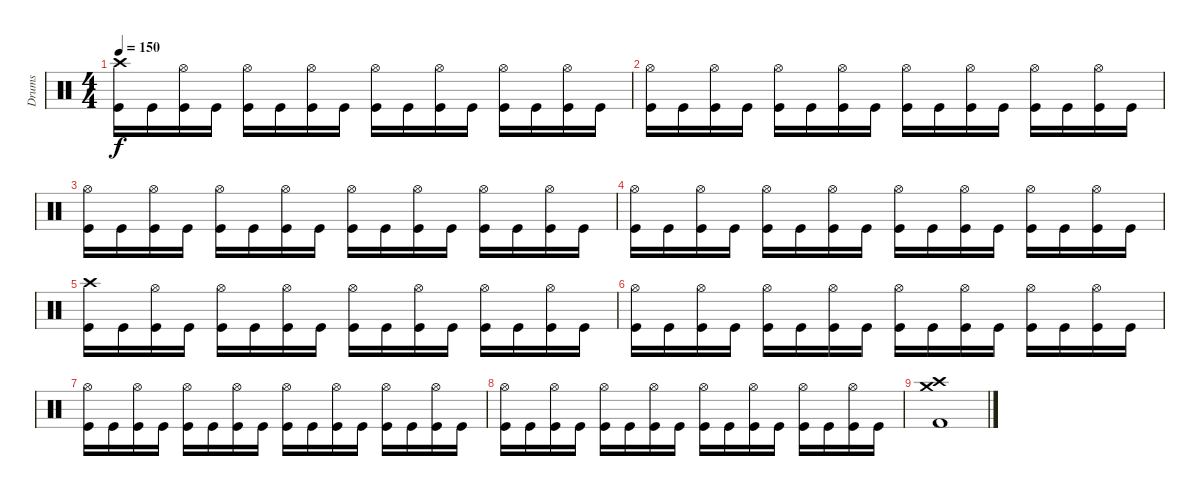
\track ("Drums" "Drums") {instrument percussion}
\staff {score}
\articulation defaults
\ts (4 4)
\tempo 150
\clef neutral
\ks c
("Crash high (hit)" "Kick (hit)").16{dy f} "Kick (hit)".16 ("Hi-Hat (open)" "Kick (hit)").16 "Kick (hit)".16 ("Hi-Hat (open)" "Kick (hit)").16 "Kick (hit)".16 ("Hi-Hat (open)" "Kick (hit)").16 "Kick (hit)".16 ("Hi-Hat (open)" "Kick (hit)").16 "Kick (hit)".16 ("Hi-Hat (open)" "Kick (hit)").16 "Kick (hit)".16 ("Hi-Hat (open)" "Kick (hit)").16 "Kick (hit)".16 ("Hi-Hat (open)" "Kick (hit)").16 "Kick (hit)".16 |
("Hi-Hat (open)" "Kick (hit)").16 "Kick (hit)".16 ("Hi-Hat (open)" "Kick (hit)").16 "Kick (hit)".16 ("Hi-Hat (open)" "Kick (hit)").16 "Kick (hit)".16 ("Hi-Hat (open)" "Kick (hit)").16 "Kick (hit)".16 ("Hi-Hat (open)" "Kick (hit)").16 "Kick (hit)".16 ("Hi-Hat (open)" "Kick (hit)").16 "Kick (hit)".16 ("Hi-Hat (open)" "Kick (hit)").16 "Kick (hit)".16 ("Hi-Hat (open)" "Kick (hit)").16 "Kick (hit)".16 |
("Hi-Hat (open)" "Kick (hit)").16 "Kick (hit)".16 ("Hi-Hat (open)" "Kick (hit)").16 "Kick (hit)".16 ("Hi-Hat (open)" "Kick (hit)").16 "Kick (hit)".16 ("Hi-Hat (open)" "Kick (hit)").16 "Kick (hit)".16 ("Hi-Hat (open)" "Kick (hit)").16 "Kick (hit)".16 ("Hi-Hat (open)" "Kick (hit)").16 "Kick (hit)".16 ("Hi-Hat (open)" "Kick (hit)").16 "Kick (hit)".16 ("Hi-Hat (open)" "Kick (hit)").16 "Kick (hit)".16 |
("Hi-Hat (open)" "Kick (hit)").16 "Kick (hit)".16 ("Hi-Hat (open)" "Kick (hit)").16 "Kick (hit)".16 ("Hi-Hat (open)" "Kick (hit)").16 "Kick (hit)".16 ("Hi-Hat (open)" "Kick (hit)").16 "Kick (hit)".16 ("Hi-Hat (open)" "Kick (hit)").16 "Kick (hit)".16 ("Hi-Hat (open)" "Kick (hit)").16 "Kick (hit)".16 ("Hi-Hat (open)" "Kick (hit)").16 "Kick (hit)".16 ("Hi-Hat (open)" "Kick (hit)").16 "Kick (hit)".16 |
("Crash high (hit)" "Kick (hit)").16 "Kick (hit)".16 ("Hi-Hat (open)" "Kick (hit)").16 "Kick (hit)".16 ("Hi-Hat (open)" "Kick (hit)").16 "Kick (hit)".16 ("Hi-Hat (open)" "Kick (hit)").16 "Kick (hit)".16 ("Hi-Hat (open)" "Kick (hit)").16 "Kick (hit)".16 ("Hi-Hat (open)" "Kick (hit)").16 "Kick (hit)".16 ("Hi-Hat (open)" "Kick (hit)").16 "Kick (hit)".16 ("Hi-Hat (open)" "Kick (hit)").16 "Kick (hit)".16 |
("Hi-Hat (open)" "Kick (hit)").16 "Kick (hit)".16 ("Hi-Hat (open)" "Kick (hit)").16 "Kick (hit)".16 ("Hi-Hat (open)" "Kick (hit)").16 "Kick (hit)".16 ("Hi-Hat (open)" "Kick (hit)").16 "Kick (hit)".16 ("Hi-Hat (open)" "Kick (hit)").16 "Kick (hit)".16 ("Hi-Hat (open)" "Kick (hit)").16 "Kick (hit)".16 ("Hi-Hat (open)" "Kick (hit)").16 "Kick (hit)".16 ("Hi-Hat (open)" "Kick (hit)").16 "Kick (hit)".16 |
("Hi-Hat (open)" "Kick (hit)").16 "Kick (hit)".16 ("Hi-Hat (open)" "Kick (hit)").16 "Kick (hit)".16 ("Hi-Hat (open)" "Kick (hit)").16 "Kick (hit)".16 ("Hi-Hat (open)" "Kick (hit)").16 "Kick (hit)".16 ("Hi-Hat (open)" "Kick (hit)").16 "Kick (hit)".16 ("Hi-Hat (open)" "Kick (hit)").16 "Kick (hit)".16 ("Hi-Hat (open)" "Kick (hit)").16 "Kick (hit)".16 ("Hi-Hat (open)" "Kick (hit)").16 "Kick (hit)".16 |
("Hi-Hat (open)" "Kick (hit)").16 "Kick (hit)".16 ("Hi-Hat (open)" "Kick (hit)").16 "Kick (hit)".16 ("Hi-Hat (open)" "Kick (hit)").16 "Kick (hit)".16 ("Hi-Hat (open)" "Kick (hit)").16 "Kick (hit)".16 ("Hi-Hat (open)" "Kick (hit)").16 "Kick (hit)".16 ("Hi-Hat (open)" "Kick (hit)").16 "Kick (hit)".16 ("Hi-Hat (open)" "Kick (hit)").16 "Kick (hit)".16 ("Hi-Hat (open)" "Kick (hit)").16 "Kick (hit)".16 |
("Crash high (hit)" "Crash medium (hit)" "Kick (hit) 2").1
